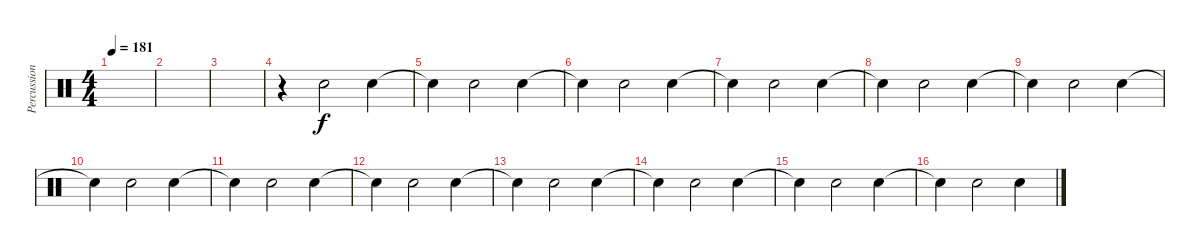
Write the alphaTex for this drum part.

\track ("Percussion" "Percussion") {instrument percussion}
\staff {score}
\articulation defaults
\ts (4 4)
\tempo 181
\clef neutral
\ks c
|
|
|
r.4 "Hand Clap (hit)".2 "Hand Clap (hit)".4 |
"Hand Clap (hit)"{t}.4 "Hand Clap (hit)".2 "Hand Clap (hit)".4 |
"Hand Clap (hit)"{t}.4 "Hand Clap (hit)".2 "Hand Clap (hit)".4 |
"Hand Clap (hit)"{t}.4 "Hand Clap (hit)".2 "Hand Clap (hit)".4 |
"Hand Clap (hit)"{t}.4 "Hand Clap (hit)".2 "Hand Clap (hit)".4 |
"Hand Clap (hit)"{t}.4 "Hand Clap (hit)".2 "Hand Clap (hit)".4 |
"Hand Clap (hit)"{t}.4 "Hand Clap (hit)".2 "Hand Clap (hit)".4 |
"Hand Clap (hit)"{t}.4 "Hand Clap (hit)".2 "Hand Clap (hit)".4 |
"Hand Clap (hit)"{t}.4 "Hand Clap (hit)".2 "Hand Clap (hit)".4 |
"Hand Clap (hit)"{t}.4 "Hand Clap (hit)".2 "Hand Clap (hit)".4 |
"Hand Clap (hit)"{t}.4 "Hand Clap (hit)".2 "Hand Clap (hit)".4 |
"Hand Clap (hit)"{t}.4 "Hand Clap (hit)".2 "Hand Clap (hit)".4 |
"Hand Clap (hit)"{t}.4 "Hand Clap (hit)".2 "Hand Clap (hit)".4
